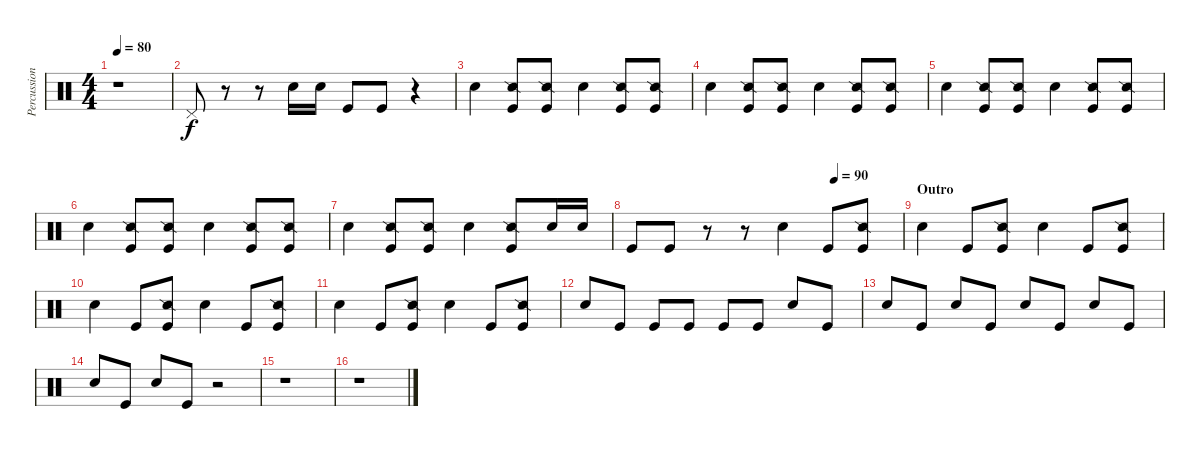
\track ("Percussion" "Percussion") {instrument percussion}
\staff {score}
\articulation defaults
\ts (4 4)
\tempo 80
\clef neutral
\ks c
r.1{dy f} |
"Pedal Hi-Hat (hit)".8 r.8 r.8 "Snare (hit) 2".16 "Snare (hit) 2".16 "Kick (hit)".8 "Kick (hit)".8 r.4 |
"Snare (hit) 2".4 ("Snare (side stick) 2" "Kick (hit)").8 ("Snare (side stick) 2" "Kick (hit)").8 "Snare (hit) 2".4 ("Snare (side stick) 2" "Kick (hit)").8 ("Snare (side stick) 2" "Kick (hit)").8 |
"Snare (hit) 2".4 ("Snare (side stick) 2" "Kick (hit)").8 ("Snare (side stick) 2" "Kick (hit)").8 "Snare (hit) 2".4 ("Snare (side stick) 2" "Kick (hit)").8 ("Snare (side stick) 2" "Kick (hit)").8 |
"Snare (hit) 2".4 ("Snare (side stick) 2" "Kick (hit)").8 ("Snare (side stick) 2" "Kick (hit)").8 "Snare (hit) 2".4 ("Snare (side stick) 2" "Kick (hit)").8 ("Snare (side stick) 2" "Kick (hit)").8 |
"Snare (hit) 2".4 ("Snare (side stick) 2" "Kick (hit)").8 ("Snare (side stick) 2" "Kick (hit)").8 "Snare (hit) 2".4 ("Snare (side stick) 2" "Kick (hit)").8 ("Snare (side stick) 2" "Kick (hit)").8 |
"Snare (hit) 2".4 ("Snare (side stick) 2" "Kick (hit)").8 ("Snare (side stick) 2" "Kick (hit)").8 "Snare (hit) 2".4 ("Snare (side stick) 2" "Kick (hit)").8 "Snare (hit) 2".16 "Snare (hit) 2".16 |
\tempo (90 0.75)
"Kick (hit)".8 "Kick (hit)".8 r.8 r.8 "Snare (hit) 2".4 "Kick (hit)".8 ("Snare (side stick) 2" "Kick (hit)").8 |
\section ("" "Outro")
"Snare (hit) 2".4 "Kick (hit)".8 ("Snare (side stick) 2" "Kick (hit)").8 "Snare (hit) 2".4 "Kick (hit)".8 ("Snare (side stick) 2" "Kick (hit)").8 |
"Snare (hit) 2".4 "Kick (hit)".8 ("Snare (side stick) 2" "Kick (hit)").8 "Snare (hit) 2".4 "Kick (hit)".8 ("Snare (side stick) 2" "Kick (hit)").8 |
"Snare (hit) 2".4 "Kick (hit)".8 ("Snare (side stick) 2" "Kick (hit)").8 "Snare (hit) 2".4 "Kick (hit)".8 ("Snare (side stick) 2" "Kick (hit)").8 |
"Snare (hit) 2".8 "Kick (hit)".8 "Kick (hit)".8 "Kick (hit)".8 "Kick (hit)".8 "Kick (hit)".8 "Snare (hit) 2".8 "Kick (hit)".8 |
"Snare (hit) 2".8 "Kick (hit)".8 "Snare (hit) 2".8 "Kick (hit)".8 "Snare (hit) 2".8 "Kick (hit)".8 "Snare (hit) 2".8 "Kick (hit)".8 |
"Snare (hit) 2".8 "Kick (hit)".8 "Snare (hit) 2".8 "Kick (hit)".8 r.2 |
r.1 |
r.1
